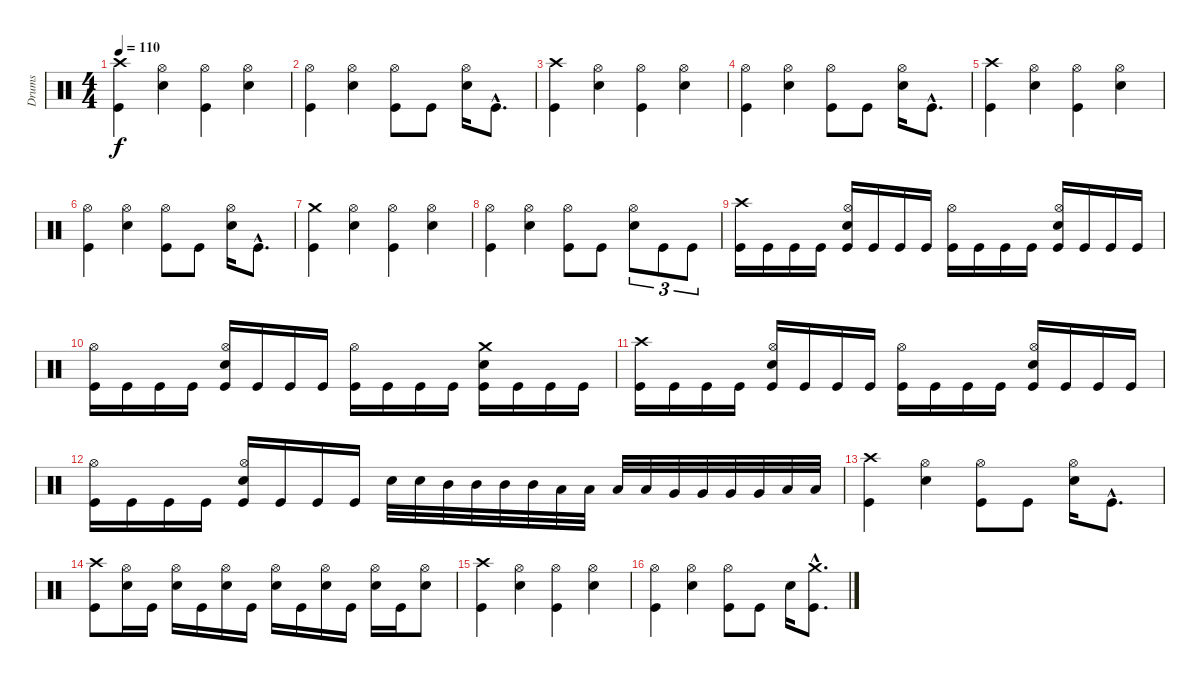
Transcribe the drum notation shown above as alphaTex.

\track ("Drums" "Drums") {instrument percussion}
\staff {score}
\articulation defaults
\ts (4 4)
\tempo 110
\clef neutral
\ks c
("Crash high (hit)" "Kick (hit)").4{dy f} ("Hi-Hat (open)" "Snare (hit) 2").4 ("Hi-Hat (open)" "Kick (hit)").4 ("Hi-Hat (open)" "Snare (hit) 2").4 |
("Hi-Hat (open)" "Kick (hit)").4 ("Hi-Hat (open)" "Snare (hit) 2").4 ("Hi-Hat (open)" "Kick (hit)").8 "Kick (hit)".8 ("Hi-Hat (open)" "Snare (hit) 2").16 "Kick (hit)"{hac}.8{d} |
("Crash high (hit)" "Kick (hit)").4 ("Hi-Hat (open)" "Snare (hit) 2").4 ("Hi-Hat (open)" "Kick (hit)").4 ("Hi-Hat (open)" "Snare (hit) 2").4 |
("Hi-Hat (open)" "Kick (hit)").4 ("Hi-Hat (open)" "Snare (hit) 2").4 ("Hi-Hat (open)" "Kick (hit)").8 "Kick (hit)".8 ("Hi-Hat (open)" "Snare (hit) 2").16 "Kick (hit)"{hac}.8{d} |
("Crash high (hit)" "Kick (hit)").4 ("Hi-Hat (open)" "Snare (hit) 2").4 ("Hi-Hat (open)" "Kick (hit)").4 ("Hi-Hat (open)" "Snare (hit) 2").4 |
("Hi-Hat (open)" "Kick (hit)").4 ("Hi-Hat (open)" "Snare (hit) 2").4 ("Hi-Hat (open)" "Kick (hit)").8 "Kick (hit)".8 ("Hi-Hat (open)" "Snare (hit) 2").16 "Kick (hit)"{hac}.8{d} |
("Crash medium (hit)" "Kick (hit)").4 ("Hi-Hat (open)" "Snare (hit) 2").4 ("Hi-Hat (open)" "Kick (hit)").4 ("Hi-Hat (open)" "Snare (hit) 2").4 |
("Hi-Hat (open)" "Kick (hit)").4 ("Hi-Hat (open)" "Snare (hit) 2").4 ("Hi-Hat (open)" "Kick (hit)").8 "Kick (hit)".8 ("Hi-Hat (open)" "Snare (hit) 2").8{tu (3 2)} "Kick (hit)".8{tu (3 2)} "Kick (hit)".8{tu (3 2)} |
("Crash high (hit)" "Kick (hit)").16 "Kick (hit)".16 "Kick (hit)".16 "Kick (hit)".16 ("Hi-Hat (open)" "Snare (hit) 2" "Kick (hit)").16 "Kick (hit)".16 "Kick (hit)".16 "Kick (hit)".16 ("Hi-Hat (open)" "Kick (hit)").16 "Kick (hit)".16 "Kick (hit)".16 "Kick (hit)".16 ("Hi-Hat (open)" "Snare (hit) 2" "Kick (hit)").16 "Kick (hit)".16 "Kick (hit)".16 "Kick (hit)".16 |
("Hi-Hat (open)" "Kick (hit)").16 "Kick (hit)".16 "Kick (hit)".16 "Kick (hit)".16 ("Hi-Hat (open)" "Snare (hit) 2" "Kick (hit)").16 "Kick (hit)".16 "Kick (hit)".16 "Kick (hit)".16 ("Hi-Hat (open)" "Kick (hit)").16 "Kick (hit)".16 "Kick (hit)".16 "Kick (hit)".16 ("Crash medium (hit)" "Snare (hit) 2" "Kick (hit)").16 "Kick (hit)".16 "Kick (hit)".16 "Kick (hit)".16 |
("Crash high (hit)" "Kick (hit)").16 "Kick (hit)".16 "Kick (hit)".16 "Kick (hit)".16 ("Hi-Hat (open)" "Snare (hit) 2" "Kick (hit)").16 "Kick (hit)".16 "Kick (hit)".16 "Kick (hit)".16 ("Hi-Hat (open)" "Kick (hit)").16 "Kick (hit)".16 "Kick (hit)".16 "Kick (hit)".16 ("Hi-Hat (open)" "Snare (hit) 2" "Kick (hit)").16 "Kick (hit)".16 "Kick (hit)".16 "Kick (hit)".16 |
("Hi-Hat (open)" "Kick (hit)").16 "Kick (hit)".16 "Kick (hit)".16 "Kick (hit)".16 ("Hi-Hat (open)" "Snare (hit) 2" "Kick (hit)").16 "Kick (hit)".16 "Kick (hit)".16 "Kick (hit)".16 "Snare (hit) 2".32 "Snare (hit) 2".32 "Mid Tom (hit)".32 "Mid Tom (hit)".32 "Mid Tom (hit)".32 "Mid Tom (hit)".32 "Low Tom (hit)".32 "Low Tom (hit)".32 "Low Tom (hit)".32 "Low Tom (hit)".32 "Very Low Tom (hit)".32 "Very Low Tom (hit)".32 "Very Low Tom (hit)".32 "Very Low Tom (hit)".32 "Low Floor Tom (hit)".32 "Low Floor Tom (hit)".32 |
("Crash high (hit)" "Kick (hit)").4 ("Hi-Hat (open)" "Snare (hit) 2").4 ("Hi-Hat (open)" "Kick (hit)").8 "Kick (hit)".8 ("Hi-Hat (open)" "Snare (hit) 2").16 "Kick (hit)"{hac}.8{d} |
("Crash high (hit)" "Kick (hit)").8 ("Hi-Hat (open)" "Snare (hit) 2").16 "Kick (hit)".16 ("Hi-Hat (open)" "Snare (hit) 2").16 "Kick (hit)".16 ("Hi-Hat (open)" "Snare (hit) 2").16 "Kick (hit)".16 ("Hi-Hat (open)" "Snare (hit) 2").16 "Kick (hit)".16 ("Hi-Hat (open)" "Snare (hit) 2").16 "Kick (hit)".16 ("Hi-Hat (open)" "Snare (hit) 2").16 "Kick (hit)".16 ("Hi-Hat (open)" "Snare (hit) 2").8 |
("Crash high (hit)" "Kick (hit)").4 ("Hi-Hat (open)" "Snare (hit) 2").4 ("Hi-Hat (open)" "Kick (hit)").4 ("Hi-Hat (open)" "Snare (hit) 2").4 |
("Hi-Hat (open)" "Kick (hit)").4 ("Hi-Hat (open)" "Snare (hit) 2").4 ("Hi-Hat (open)" "Kick (hit)").8 "Kick (hit)".8 "Snare (hit) 2".16 ("Crash medium (hit)"{hac} "Kick (hit)"{hac}).8{d}
